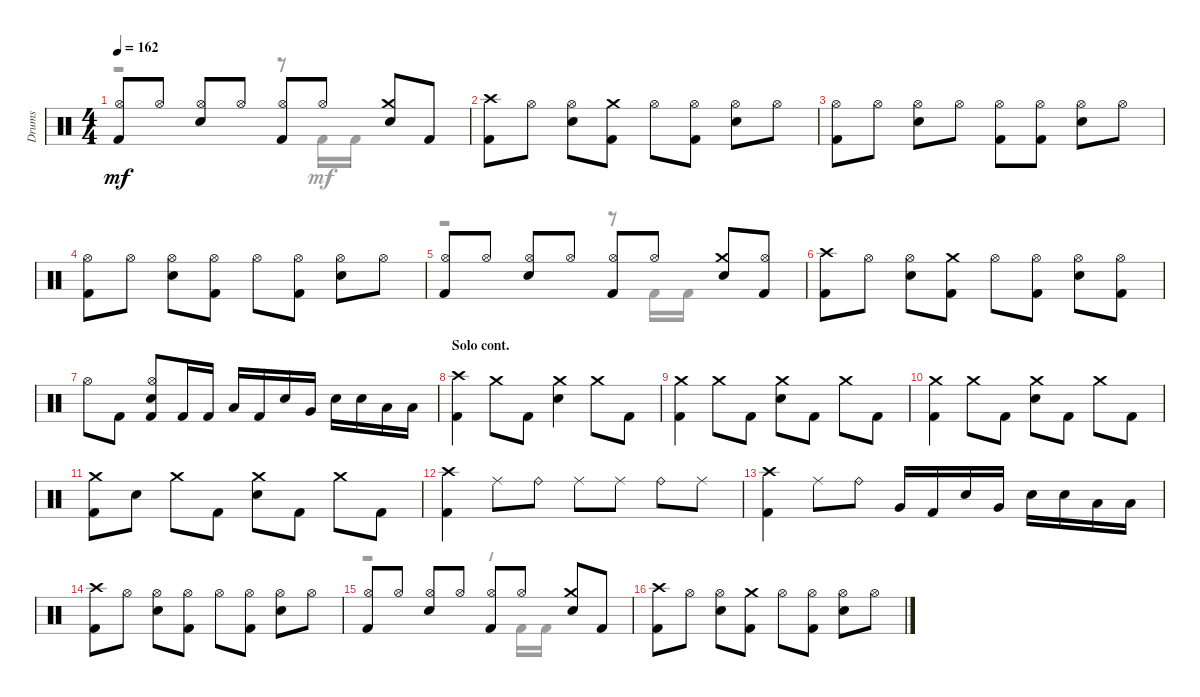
\track ("Drums" "Drums") {instrument percussion}
\staff {score}
\articulation defaults
\voice
\ts (4 4)
\tempo 162
\clef neutral
\ks aminor
("Kick (hit) 2" "Hi-Hat (open)").8{dy mf} "Hi-Hat (open)".8 ("Hi-Hat (open)" "Snare (hit) 2").8 "Hi-Hat (open)".8 ("Kick (hit) 2" "Hi-Hat (open)").8 "Hi-Hat (open)".8 ("Snare (hit) 2" "Crash medium (hit)").8 "Kick (hit) 2".8 |
("Crash high (hit)" "Kick (hit) 2").8 "Hi-Hat (open)".8 ("Hi-Hat (open)" "Snare (hit) 2").8 ("Crash medium (hit)" "Kick (hit) 2").8 "Hi-Hat (open)".8 ("Hi-Hat (open)" "Kick (hit) 2").8 ("Hi-Hat (open)" "Snare (hit) 2").8 "Hi-Hat (open)".8 |
("Kick (hit) 2" "Hi-Hat (open)").8 "Hi-Hat (open)".8 ("Hi-Hat (open)" "Snare (hit) 2").8 "Hi-Hat (open)".8 ("Kick (hit) 2" "Hi-Hat (open)").8 ("Kick (hit) 2" "Hi-Hat (open)").8 ("Snare (hit) 2" "Hi-Hat (open)").8 "Hi-Hat (open)".8 |
("Kick (hit) 2" "Hi-Hat (open)").8 "Hi-Hat (open)".8 ("Hi-Hat (open)" "Snare (hit) 2").8 ("Hi-Hat (open)" "Kick (hit) 2").8 "Hi-Hat (open)".8 ("Kick (hit) 2" "Hi-Hat (open)").8 ("Hi-Hat (open)" "Snare (hit) 2").8 "Hi-Hat (open)".8 |
("Hi-Hat (open)" "Kick (hit) 2").8 "Hi-Hat (open)".8 ("Snare (hit) 2" "Hi-Hat (open)").8 "Hi-Hat (open)".8 ("Kick (hit) 2" "Hi-Hat (open)").8 "Hi-Hat (open)".8 ("Snare (hit) 2" "Crash medium (hit)").8 ("Hi-Hat (open)" "Kick (hit) 2").8 |
("Crash high (hit)" "Kick (hit) 2").8 "Hi-Hat (open)".8 ("Hi-Hat (open)" "Snare (hit) 2").8 ("Kick (hit) 2" "Crash medium (hit)").8 "Hi-Hat (open)".8 ("Kick (hit) 2" "Hi-Hat (open)").8 ("Hi-Hat (open)" "Snare (hit) 2").8 ("Kick (hit) 2" "Hi-Hat (open)").8 |
"Hi-Hat (open)".8 "Kick (hit) 2".8 ("Hi-Hat (open)" "Kick (hit) 2" "Snare (hit) 2").8 "Kick (hit) 2".16 "Kick (hit) 2".16 "Low Tom (hit)".16 "Kick (hit) 2".16 "Snare (hit) 2".16 "Very Low Tom (hit)".16 "Snare (hit) 2".16 "Snare (hit) 2".16 "Low Floor Tom (hit)".16 "Low Floor Tom (hit)".16 |
\section ("" "Solo cont.")
("Crash high (hit)" "Kick (hit) 2").4 "Crash medium (hit)".8 "Kick (hit) 2".8 ("Snare (hit) 2" "Crash medium (hit)").4 "Crash medium (hit)".8 "Kick (hit) 2".8 |
("Kick (hit) 2" "Crash medium (hit)").4 "Crash medium (hit)".8 "Kick (hit) 2".8 ("Snare (hit) 2" "Crash medium (hit)").8 "Kick (hit) 2".8 "Crash medium (hit)".8 "Kick (hit) 2".8 |
("Crash medium (hit)" "Kick (hit) 2").4 "Crash medium (hit)".8 "Kick (hit) 2".8 ("Crash medium (hit)" "Snare (hit) 2").8 "Kick (hit) 2".8 "Crash medium (hit)".8 "Kick (hit) 2".8 |
("Crash medium (hit)" "Kick (hit) 2").8 "Snare (hit) 2".8 "Crash medium (hit)".8 "Kick (hit) 2".8 ("Snare (hit) 2" "Crash medium (hit)").8 "Kick (hit) 2".8 "Crash medium (hit)".8 "Kick (hit) 2".8 |
("Crash high (hit)" "Kick (hit) 2").4 "Ride (middle)".8 "Ride (bell)".8 "Ride (middle)".8 "Ride (middle)".8 "Ride (bell)".8 "Ride (middle)".8 |
("Kick (hit) 2" "Crash high (hit)").4 "Ride (middle)".8 "Ride (bell)".8 "Very Low Tom (hit)".16 "Kick (hit) 2".16 "Snare (hit) 2".16 "Very Low Tom (hit)".16 "Snare (hit) 2".16 "Snare (hit) 2".16 "Low Floor Tom (hit)".16 "Low Floor Tom (hit)".16 |
("Crash high (hit)" "Kick (hit) 2").8 "Hi-Hat (open)".8 ("Hi-Hat (open)" "Snare (hit) 2").8 ("Kick (hit) 2" "Hi-Hat (open)").8 "Hi-Hat (open)".8 ("Kick (hit) 2" "Hi-Hat (open)").8 ("Snare (hit) 2" "Hi-Hat (open)").8 "Hi-Hat (open)".8 |
("Hi-Hat (open)" "Kick (hit) 2").8 "Hi-Hat (open)".8 ("Hi-Hat (open)" "Snare (hit) 2").8 "Hi-Hat (open)".8 ("Kick (hit) 2" "Hi-Hat (open)").8 "Hi-Hat (open)".8 ("Snare (hit) 2" "Crash medium (hit)").8 "Kick (hit) 2".8 |
("Kick (hit) 2" "Crash high (hit)").8 "Hi-Hat (open)".8 ("Snare (hit) 2" "Hi-Hat (open)").8 ("Kick (hit) 2" "Crash medium (hit)").8 "Hi-Hat (open)".8 ("Kick (hit) 2" "Hi-Hat (open)").8 ("Snare (hit) 2" "Hi-Hat (open)").8 "Hi-Hat (open)".8
\voice
\clef neutral
\ottava regular
\simile none
\ks aminor
r.2{dy mf} r.8 "Kick (hit) 2".16 "Kick (hit) 2".16 |
|
|
|
r.2 r.8 "Kick (hit) 2".16 "Kick (hit) 2".16 |
|
|
|
|
|
|
|
|
|
r.2 r.8 "Kick (hit) 2".16 "Kick (hit) 2".16 |
